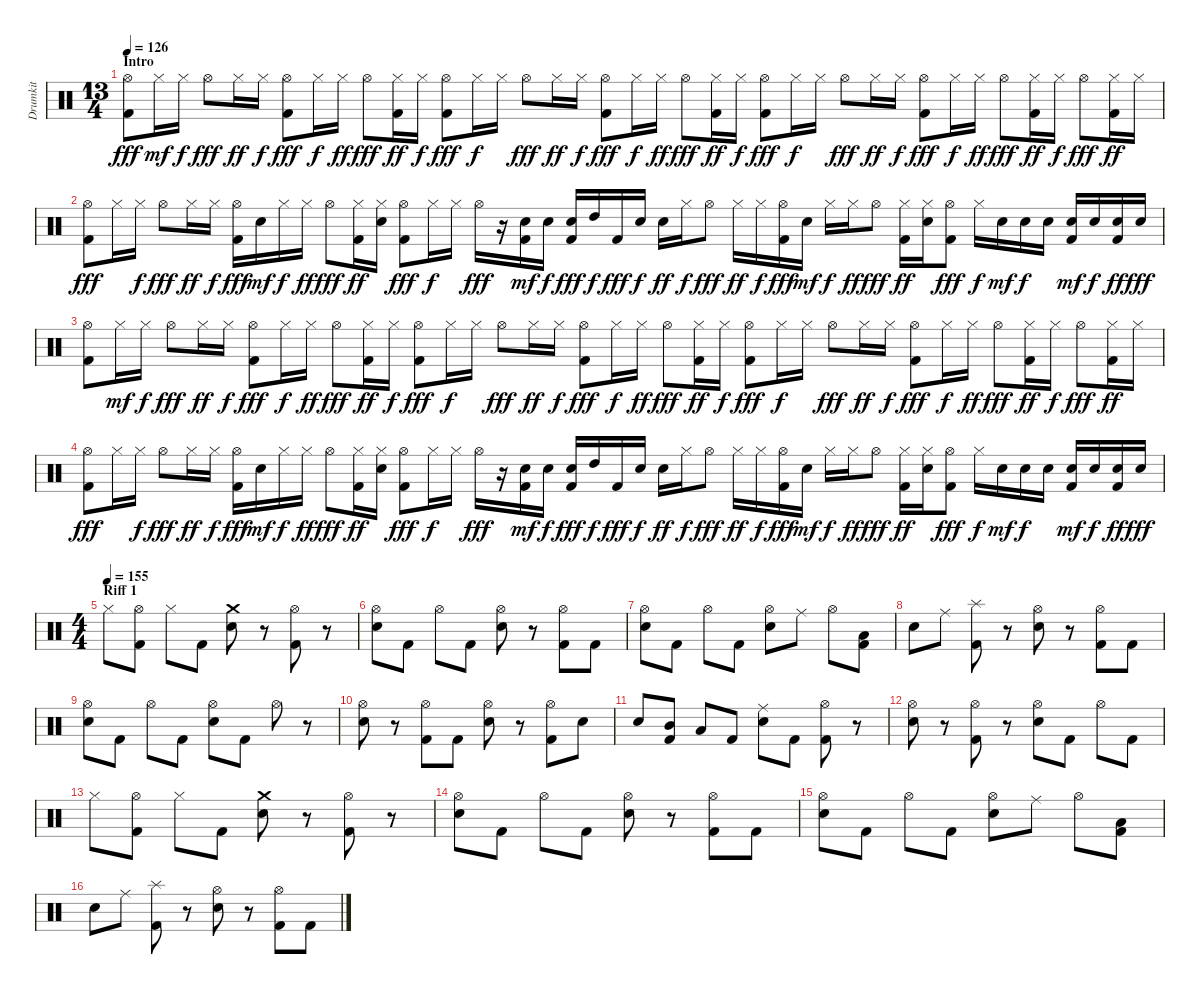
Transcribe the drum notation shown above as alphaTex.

\track ("Drumkit" "Drumkit") {instrument percussion}
\staff {score}
\articulation defaults
\ts (13 4)
\section ("" "Intro")
\tempo 126
\clef neutral
\ks c
("Kick (hit) 2" "Hi-Hat (open)").8{dy fff} "Hi-Hat (closed)".16{dy mf} "Hi-Hat (closed)".16{dy f} "Hi-Hat (open)".8{dy fff} "Hi-Hat (closed)".16{dy ff} "Hi-Hat (closed)".16{dy f} ("Kick (hit) 2" "Hi-Hat (open)").8{dy fff} "Hi-Hat (closed)".16{dy f} "Hi-Hat (closed)".16{dy ff} "Hi-Hat (open)".8{dy fff} ("Kick (hit) 2" "Hi-Hat (closed)").16{dy ff} "Hi-Hat (closed)".16{dy f} ("Kick (hit) 2" "Hi-Hat (open)").8{dy fff} "Hi-Hat (closed)".16{dy f} "Hi-Hat (closed)".16 "Hi-Hat (open)".8{dy fff} "Hi-Hat (closed)".16{dy ff} "Hi-Hat (closed)".16{dy f} ("Kick (hit) 2" "Hi-Hat (open)").8{dy fff} "Hi-Hat (closed)".16{dy f} "Hi-Hat (closed)".16{dy ff} "Hi-Hat (open)".8{dy fff} ("Kick (hit) 2" "Hi-Hat (closed)").16{dy ff} "Hi-Hat (closed)".16{dy f} ("Kick (hit) 2" "Hi-Hat (open)").8{dy fff} "Hi-Hat (closed)".16{dy f} "Hi-Hat (closed)".16 "Hi-Hat (open)".8{dy fff} "Hi-Hat (closed)".16{dy ff} "Hi-Hat (closed)".16{dy f} ("Kick (hit) 2" "Hi-Hat (open)").8{dy fff} "Hi-Hat (closed)".16{dy f} "Hi-Hat (closed)".16{dy ff} "Hi-Hat (open)".8{dy fff} ("Kick (hit) 2" "Hi-Hat (closed)").16{dy ff} "Hi-Hat (closed)".16{dy f} "Hi-Hat (open)".8{dy fff} ("Kick (hit) 2" "Hi-Hat (closed)").16{dy ff} "Hi-Hat (closed)".16 |
("Kick (hit) 2" "Hi-Hat (open)").8{dy fff} "Hi-Hat (closed)".16 "Hi-Hat (closed)".16{dy f} "Hi-Hat (open)".8{dy fff} "Hi-Hat (closed)".16{dy ff} "Hi-Hat (closed)".16{dy f} ("Kick (hit) 2" "Hi-Hat (open)").16{dy fff} "Snare (hit) 2".16{dy mf} "Hi-Hat (closed)".16{dy f} "Hi-Hat (closed)".16{dy ff} "Hi-Hat (open)".8{dy fff} ("Kick (hit) 2" "Hi-Hat (closed)").16{dy ff} ("Snare (hit) 2" "Hi-Hat (closed)").16 ("Kick (hit) 2" "Hi-Hat (open)").8{dy fff} "Hi-Hat (closed)".16{dy f} "Hi-Hat (closed)".16 "Hi-Hat (open)".16{dy fff} r.16 ("Kick (hit) 2" "Snare (hit) 2").16{dy mf} "Snare (hit) 2".16{dy f} ("Kick (hit) 2" "Snare (hit) 2").16{dy fff} "High Tom (hit)".16{dy f} "Kick (hit) 2".16{dy fff} "Snare (hit) 2".16{dy f} "Snare (hit) 2".16{dy ff} "Hi-Hat (closed)".16{dy f} "Hi-Hat (open)".8{dy fff} "Hi-Hat (closed)".16{dy ff} "Hi-Hat (closed)".16{dy f} ("Kick (hit) 2" "Hi-Hat (open)").16{dy fff} "Snare (hit) 2".16{dy mf} "Hi-Hat (closed)".16{dy f} "Hi-Hat (closed)".16{dy ff} "Hi-Hat (open)".8{dy fff} ("Kick (hit) 2" "Hi-Hat (closed)").16{dy ff} ("Snare (hit) 2" "Hi-Hat (closed)").16 ("Kick (hit) 2" "Hi-Hat (open)").8{dy fff} "Hi-Hat (closed)".16{dy f} "Snare (hit) 2".16{dy mf} "Snare (hit) 2".16{dy f} "Snare (hit) 2".16 ("Kick (hit) 2" "Snare (hit) 2").16{dy mf} "Snare (hit) 2".16{dy f} ("Kick (hit) 2" "Snare (hit) 2").16{dy ff} "Snare (hit) 2".16{dy fff} |
("Kick (hit) 2" "Hi-Hat (open)").8 "Hi-Hat (closed)".16{dy mf} "Hi-Hat (closed)".16{dy f} "Hi-Hat (open)".8{dy fff} "Hi-Hat (closed)".16{dy ff} "Hi-Hat (closed)".16{dy f} ("Kick (hit) 2" "Hi-Hat (open)").8{dy fff} "Hi-Hat (closed)".16{dy f} "Hi-Hat (closed)".16{dy ff} "Hi-Hat (open)".8{dy fff} ("Kick (hit) 2" "Hi-Hat (closed)").16{dy ff} "Hi-Hat (closed)".16{dy f} ("Kick (hit) 2" "Hi-Hat (open)").8{dy fff} "Hi-Hat (closed)".16{dy f} "Hi-Hat (closed)".16 "Hi-Hat (open)".8{dy fff} "Hi-Hat (closed)".16{dy ff} "Hi-Hat (closed)".16{dy f} ("Kick (hit) 2" "Hi-Hat (open)").8{dy fff} "Hi-Hat (closed)".16{dy f} "Hi-Hat (closed)".16{dy ff} "Hi-Hat (open)".8{dy fff} ("Kick (hit) 2" "Hi-Hat (closed)").16{dy ff} "Hi-Hat (closed)".16{dy f} ("Kick (hit) 2" "Hi-Hat (open)").8{dy fff} "Hi-Hat (closed)".16{dy f} "Hi-Hat (closed)".16 "Hi-Hat (open)".8{dy fff} "Hi-Hat (closed)".16{dy ff} "Hi-Hat (closed)".16{dy f} ("Kick (hit) 2" "Hi-Hat (open)").8{dy fff} "Hi-Hat (closed)".16{dy f} "Hi-Hat (closed)".16{dy ff} "Hi-Hat (open)".8{dy fff} ("Kick (hit) 2" "Hi-Hat (closed)").16{dy ff} "Hi-Hat (closed)".16{dy f} "Hi-Hat (open)".8{dy fff} ("Kick (hit) 2" "Hi-Hat (closed)").16{dy ff} "Hi-Hat (closed)".16 |
("Kick (hit) 2" "Hi-Hat (open)").8{dy fff} "Hi-Hat (closed)".16 "Hi-Hat (closed)".16{dy f} "Hi-Hat (open)".8{dy fff} "Hi-Hat (closed)".16{dy ff} "Hi-Hat (closed)".16{dy f} ("Kick (hit) 2" "Hi-Hat (open)").16{dy fff} "Snare (hit) 2".16{dy mf} "Hi-Hat (closed)".16{dy f} "Hi-Hat (closed)".16{dy ff} "Hi-Hat (open)".8{dy fff} ("Kick (hit) 2" "Hi-Hat (closed)").16{dy ff} ("Snare (hit) 2" "Hi-Hat (closed)").16 ("Kick (hit) 2" "Hi-Hat (open)").8{dy fff} "Hi-Hat (closed)".16{dy f} "Hi-Hat (closed)".16 "Hi-Hat (open)".16{dy fff} r.16 ("Kick (hit) 2" "Snare (hit) 2").16{dy mf} "Snare (hit) 2".16{dy f} ("Kick (hit) 2" "Snare (hit) 2").16{dy fff} "High Tom (hit)".16{dy f} "Kick (hit) 2".16{dy fff} "Snare (hit) 2".16{dy f} "Snare (hit) 2".16{dy ff} "Hi-Hat (closed)".16{dy f} "Hi-Hat (open)".8{dy fff} "Hi-Hat (closed)".16{dy ff} "Hi-Hat (closed)".16{dy f} ("Kick (hit) 2" "Hi-Hat (open)").16{dy fff} "Snare (hit) 2".16{dy mf} "Hi-Hat (closed)".16{dy f} "Hi-Hat (closed)".16{dy ff} "Hi-Hat (open)".8{dy fff} ("Kick (hit) 2" "Hi-Hat (closed)").16{dy ff} ("Snare (hit) 2" "Hi-Hat (closed)").16 ("Kick (hit) 2" "Hi-Hat (open)").8{dy fff} "Hi-Hat (closed)".16{dy f} "Snare (hit) 2".16{dy mf} "Snare (hit) 2".16{dy f} "Snare (hit) 2".16 ("Kick (hit) 2" "Snare (hit) 2").16{dy mf} "Snare (hit) 2".16{dy f} ("Kick (hit) 2" "Snare (hit) 2").16{dy ff} "Snare (hit) 2".16{dy fff} |
\ts (4 4)
\section ("" "Riff 1")
\tempo (155)
"Hi-Hat (closed)".8 ("Kick (hit) 2" "Hi-Hat (open)").8 "Hi-Hat (closed)".8 "Kick (hit) 2".8 ("Snare (hit) 2" "Crash medium (hit)").8 r.8 ("Kick (hit) 2" "Hi-Hat (open)").8 r.8 |
("Snare (hit) 2" "Hi-Hat (open)").8 "Kick (hit) 2".8 "Hi-Hat (open)".8 "Kick (hit) 2".8 ("Snare (hit) 2" "Hi-Hat (open)").8 r.8 ("Kick (hit) 2" "Hi-Hat (open)").8 "Kick (hit) 2".8 |
("Snare (hit) 2" "Hi-Hat (open)").8 "Kick (hit) 2".8 "Hi-Hat (open)".8 "Kick (hit) 2".8 ("Snare (hit) 2" "Hi-Hat (open)").8 "Ride (middle)".8 "Hi-Hat (open)".8 ("Kick (hit) 2" "Low Tom (hit)").8 |
"Snare (hit) 2".8 "Ride (middle)".8 ("Kick (hit) 2" "Splash (hit)").8 r.8 ("Snare (hit) 2" "Hi-Hat (open)").8 r.8 ("Kick (hit) 2" "Hi-Hat (open)").8 "Kick (hit) 2".8 |
("Snare (hit) 2" "Hi-Hat (open)").8 "Kick (hit) 2".8 "Hi-Hat (open)".8 "Kick (hit) 2".8 ("Snare (hit) 2" "Hi-Hat (open)").8 "Kick (hit) 2".8 "Hi-Hat (open)".8 r.8 |
("Snare (hit) 2" "Hi-Hat (open)").8 r.8 ("Kick (hit) 2" "Hi-Hat (open)").8 "Kick (hit) 2".8 ("Snare (hit) 2" "Hi-Hat (open)").8 r.8 ("Kick (hit) 2" "Hi-Hat (open)").8 "Snare (hit) 2".8 |
"Snare (hit) 2".8 ("Kick (hit) 2" "Mid Tom (hit)").8 "Low Tom (hit)".8 "Kick (hit) 2".8 ("Snare (hit) 2" "Ride (middle)").8 "Kick (hit) 2".8 ("Kick (hit) 2" "Hi-Hat (open)").8 r.8 |
("Snare (hit) 2" "Hi-Hat (open)").8 r.8 ("Kick (hit) 2" "Hi-Hat (open)").8 r.8 ("Snare (hit) 2" "Hi-Hat (open)").8 "Kick (hit) 2".8 "Hi-Hat (open)".8 "Kick (hit) 2".8 |
"Hi-Hat (closed)".8 ("Kick (hit) 2" "Hi-Hat (open)").8 "Hi-Hat (closed)".8 "Kick (hit) 2".8 ("Snare (hit) 2" "Crash medium (hit)").8 r.8 ("Kick (hit) 2" "Hi-Hat (open)").8 r.8 |
("Snare (hit) 2" "Hi-Hat (open)").8 "Kick (hit) 2".8 "Hi-Hat (open)".8 "Kick (hit) 2".8 ("Snare (hit) 2" "Hi-Hat (open)").8 r.8 ("Kick (hit) 2" "Hi-Hat (open)").8 "Kick (hit) 2".8 |
("Snare (hit) 2" "Hi-Hat (open)").8 "Kick (hit) 2".8 "Hi-Hat (open)".8 "Kick (hit) 2".8 ("Snare (hit) 2" "Hi-Hat (open)").8 "Ride (middle)".8 "Hi-Hat (open)".8 ("Kick (hit) 2" "Low Tom (hit)").8 |
"Snare (hit) 2".8 "Ride (middle)".8 ("Kick (hit) 2" "Splash (hit)").8 r.8 ("Snare (hit) 2" "Hi-Hat (open)").8 r.8 ("Kick (hit) 2" "Hi-Hat (open)").8 "Kick (hit) 2".8
